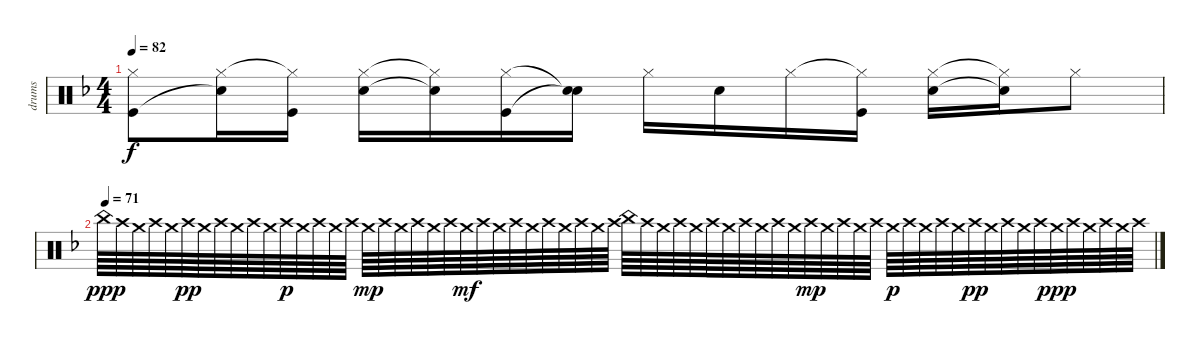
\track ("drums" "drums") {instrument percussion}
\staff {score}
\articulation defaults
\ts (4 4)
\tempo 82
\clef neutral
\ks f
("Hi-Hat (closed)" "Kick (hit)").8{dy f} ("Hi-Hat (closed)" "Snare (hit)"{t}).16 ("Hi-Hat (closed)"{t} "Kick (hit)").16 ("Hi-Hat (closed)" "Snare (hit) 2").16 ("Hi-Hat (closed)"{t} "Snare (hit) 2"{t}).16 ("Hi-Hat (closed)" "Kick (hit)").16 ("Snare (hit)"{t} "Snare (hit)"{t}).16 "Hi-Hat (closed)".16 "Snare (hit) 2".16 "Hi-Hat (closed)".16 ("Hi-Hat (closed)"{t} "Kick (hit)").16 ("Hi-Hat (closed)" "Snare (hit) 2").16 ("Hi-Hat (closed)"{t} "Snare (hit)"{t}).16 "Hi-Hat (closed)".8 |
\tempo (71)
"China (hit)".64{dy ppp} "Crash high (hit)".64 "Crash medium (hit)".64 "Crash high (hit)".64 "Crash medium (hit)".64 "Crash high (hit)".64{dy pp} "Crash medium (hit)".64 "Crash high (hit)".64 "Crash medium (hit)".64 "Crash high (hit)".64 "Crash medium (hit)".64 "Crash high (hit)".64{dy p} "Crash medium (hit)".64 "Crash high (hit)".64 "Crash medium (hit)".64 "Crash high (hit)".64 "Crash medium (hit)".64{dy mp} "Crash high (hit)".64 "Crash medium (hit)".64 "Crash high (hit)".64 "Crash medium (hit)".64 "Crash high (hit)".64 "Crash medium (hit)".64{dy mf} "Crash high (hit)".64 "Crash medium (hit)".64 "Crash high (hit)".64 "Crash medium (hit)".64 "Crash high (hit)".64 "Crash medium (hit)".64 "Crash high (hit)".64 "Crash medium (hit)".64 "Crash high (hit)".64 "China (hit)".64 "Crash high (hit)".64 "Crash medium (hit)".64 "Crash high (hit)".64 "Crash medium (hit)".64 "Crash high (hit)".64 "Crash medium (hit)".64 "Crash high (hit)".64 "Crash medium (hit)".64 "Crash high (hit)".64 "Crash medium (hit)".64 "Crash high (hit)".64{dy mp} "Crash medium (hit)".64 "Crash high (hit)".64 "Crash medium (hit)".64 "Crash high (hit)".64 "Crash medium (hit)".64{dy p} "Crash high (hit)".64 "Crash medium (hit)".64 "Crash high (hit)".64 "Crash medium (hit)".64 "Crash high (hit)".64{dy pp} "Crash medium (hit)".64 "Crash high (hit)".64 "Crash medium (hit)".64 "Crash high (hit)".64 "Crash medium (hit)".64{dy ppp} "Crash high (hit)".64 "Crash medium (hit)".64 "Crash high (hit)".64 "Crash medium (hit)".64 "Crash high (hit)".64
